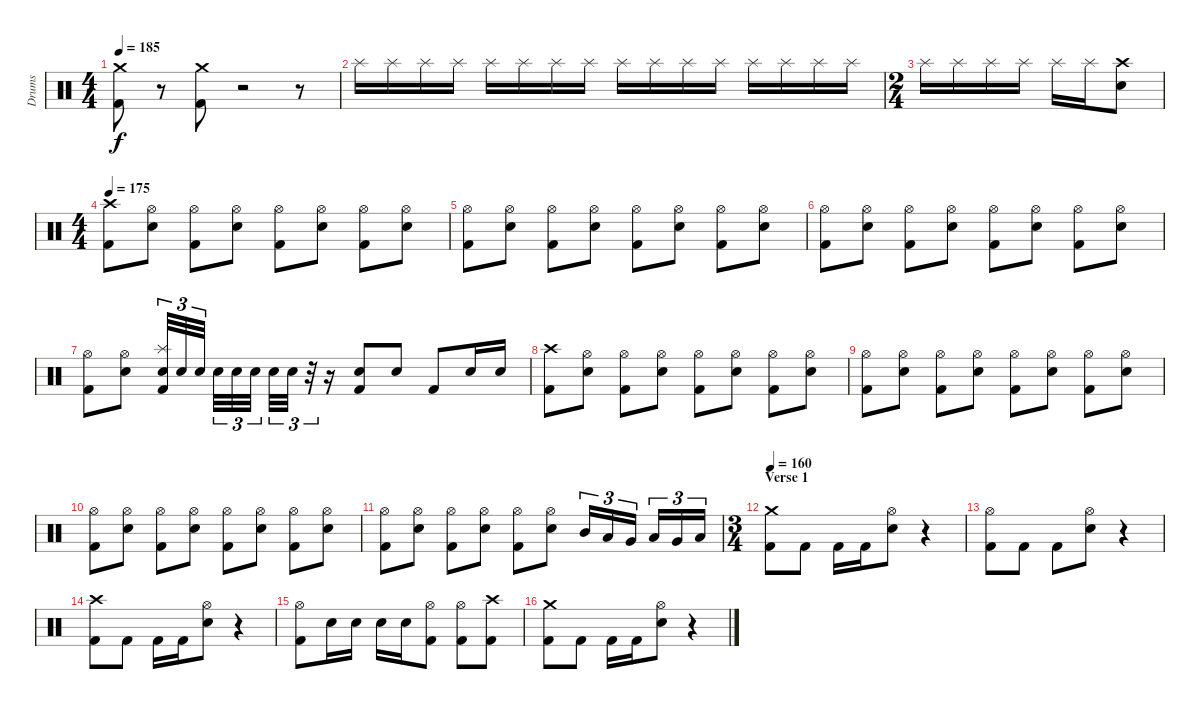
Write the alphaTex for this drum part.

\track ("Drums" "Drums") {instrument percussion}
\staff {score}
\articulation defaults
\ts (4 4)
\tempo 185
\clef neutral
\ks c
("Crash medium (hit)" "Kick (hit) 2").8{dy f} r.8 ("Crash medium (hit)" "Kick (hit) 2").8 r.2 r.8 |
"Splash (hit)".16{volume 6} "Splash (hit)".16 "Splash (hit)".16 "Splash (hit)".16 "Splash (hit)".16 "Splash (hit)".16 "Splash (hit)".16 "Splash (hit)".16 "Splash (hit)".16 "Splash (hit)".16 "Splash (hit)".16 "Splash (hit)".16 "Splash (hit)".16 "Splash (hit)".16 "Splash (hit)".16 "Splash (hit)".16 |
\ts (2 4)
"Splash (hit)".16 "Splash (hit)".16 "Splash (hit)".16 "Splash (hit)".16 "Splash (hit)".16 "Splash (hit)".16 ("Crash high (hit)" "Snare (hit) 2").8{volume 16} |
\ts (4 4)
\tempo 175
("Crash high (hit)" "Kick (hit) 2").8 ("Hi-Hat (open)" "Snare (hit) 2").8 ("Hi-Hat (open)" "Kick (hit) 2").8 ("Hi-Hat (open)" "Snare (hit) 2").8 ("Hi-Hat (open)" "Kick (hit) 2").8 ("Hi-Hat (open)" "Snare (hit) 2").8 ("Hi-Hat (open)" "Kick (hit) 2").8 ("Hi-Hat (open)" "Snare (hit) 2").8 |
("Hi-Hat (open)" "Kick (hit) 2").8 ("Hi-Hat (open)" "Snare (hit) 2").8 ("Hi-Hat (open)" "Kick (hit) 2").8 ("Hi-Hat (open)" "Snare (hit) 2").8 ("Hi-Hat (open)" "Kick (hit) 2").8 ("Hi-Hat (open)" "Snare (hit) 2").8 ("Hi-Hat (open)" "Kick (hit) 2").8 ("Hi-Hat (open)" "Snare (hit) 2").8 |
("Hi-Hat (open)" "Kick (hit) 2").8 ("Hi-Hat (open)" "Snare (hit) 2").8 ("Hi-Hat (open)" "Kick (hit) 2").8 ("Hi-Hat (open)" "Snare (hit) 2").8 ("Hi-Hat (open)" "Kick (hit) 2").8 ("Hi-Hat (open)" "Snare (hit) 2").8 ("Hi-Hat (open)" "Kick (hit) 2").8 ("Hi-Hat (open)" "Snare (hit) 2").8 |
("Hi-Hat (open)" "Kick (hit) 2").8 ("Hi-Hat (open)" "Snare (hit) 2").8 ("Splash (hit)" "Snare (hit) 2" "Kick (hit) 2").32{tu (3 2)} "Snare (hit) 2".32{tu (3 2)} "Snare (hit) 2".32{tu (3 2)} "Snare (hit) 2".32{tu (3 2)} "Snare (hit) 2".32{tu (3 2)} "Snare (hit) 2".32{tu (3 2)} "Snare (hit) 2".32{tu (3 2)} "Snare (hit) 2".32{tu (3 2)} r.32{tu (3 2)} r.16 ("Snare (hit) 2" "Kick (hit) 2").8 "Snare (hit) 2".8 "Kick (hit) 2".8 "Snare (hit) 2".16 "Snare (hit) 2".16 |
("Crash high (hit)" "Kick (hit) 2").8 ("Hi-Hat (open)" "Snare (hit) 2").8 ("Hi-Hat (open)" "Kick (hit) 2").8 ("Hi-Hat (open)" "Snare (hit) 2").8 ("Hi-Hat (open)" "Kick (hit) 2").8 ("Hi-Hat (open)" "Snare (hit) 2").8 ("Hi-Hat (open)" "Kick (hit) 2").8 ("Hi-Hat (open)" "Snare (hit) 2").8 |
("Hi-Hat (open)" "Kick (hit) 2").8 ("Hi-Hat (open)" "Snare (hit) 2").8 ("Hi-Hat (open)" "Kick (hit) 2").8 ("Hi-Hat (open)" "Snare (hit) 2").8 ("Hi-Hat (open)" "Kick (hit) 2").8 ("Hi-Hat (open)" "Snare (hit) 2").8 ("Hi-Hat (open)" "Kick (hit) 2").8 ("Hi-Hat (open)" "Snare (hit) 2").8 |
("Hi-Hat (open)" "Kick (hit) 2").8 ("Hi-Hat (open)" "Snare (hit) 2").8 ("Hi-Hat (open)" "Kick (hit) 2").8 ("Hi-Hat (open)" "Snare (hit) 2").8 ("Hi-Hat (open)" "Kick (hit) 2").8 ("Hi-Hat (open)" "Snare (hit) 2").8 ("Hi-Hat (open)" "Kick (hit) 2").8 ("Hi-Hat (open)" "Snare (hit) 2").8 |
("Hi-Hat (open)" "Kick (hit) 2").8 ("Hi-Hat (open)" "Snare (hit) 2").8 ("Hi-Hat (open)" "Kick (hit) 2").8 ("Hi-Hat (open)" "Snare (hit) 2").8 ("Hi-Hat (open)" "Kick (hit) 2").8 ("Hi-Hat (open)" "Snare (hit) 2").8 "Mid Tom (hit)".16{tu (3 2)} "Low Tom (hit)".16{tu (3 2)} "Very Low Tom (hit)".16{tu (3 2)} "Low Tom (hit)".16{tu (3 2)} "Very Low Tom (hit)".16{tu (3 2)} "Low Floor Tom (hit)".16{tu (3 2)} |
\ts (3 4)
\section ("" "Verse 1")
\tempo 160
("Crash medium (hit)" "Kick (hit) 2").8 "Kick (hit) 2".8 "Kick (hit) 2".16 "Kick (hit) 2".16 ("Hi-Hat (open)" "Snare (hit) 2").8 r.4 |
("Hi-Hat (open)" "Kick (hit) 2").8 "Kick (hit) 2".8 "Kick (hit) 2".8 ("Hi-Hat (open)" "Snare (hit) 2").8 r.4 |
("Crash high (hit)" "Kick (hit) 2").8 "Kick (hit) 2".8 "Kick (hit) 2".16 "Kick (hit) 2".16 ("Hi-Hat (open)" "Snare (hit) 2").8 r.4 |
("Hi-Hat (open)" "Kick (hit) 2").8 "Snare (hit) 2".16 "Snare (hit) 2".16 "Snare (hit) 2".16 "Snare (hit) 2".16 ("Hi-Hat (open)" "Kick (hit) 2").8 ("Hi-Hat (open)" "Kick (hit) 2").8 ("Crash high (hit)" "Kick (hit) 2").8 |
("Crash medium (hit)" "Kick (hit) 2").8 "Kick (hit) 2".8 "Kick (hit) 2".16 "Kick (hit) 2".16 ("Hi-Hat (open)" "Snare (hit) 2").8 r.4
